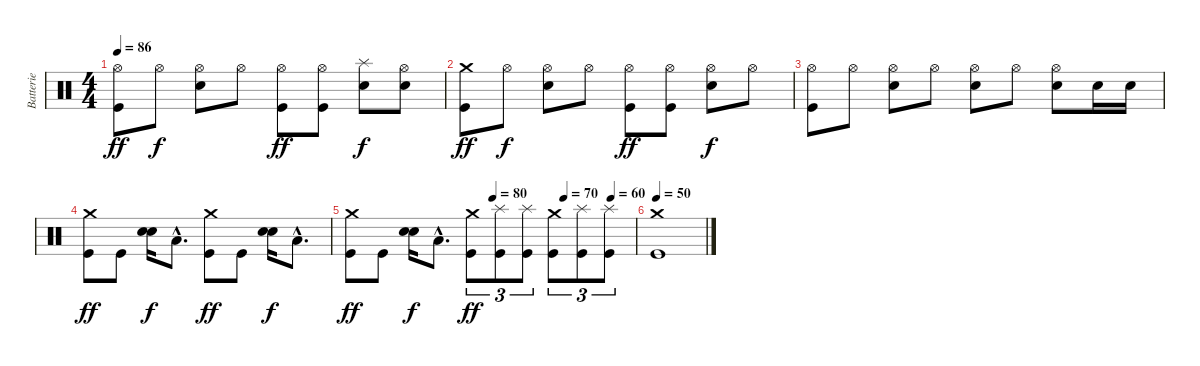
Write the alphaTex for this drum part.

\track ("Batterie" "Batterie") {instrument percussion}
\staff {score}
\articulation defaults
\ts (4 4)
\tempo 86
\clef neutral
\ks c
("Hi-Hat (open)" "Kick (hit)").8{dy ff} "Hi-Hat (open)".8{dy f} ("Hi-Hat (open)" "Electric Snare (hit)").8 "Hi-Hat (open)".8 ("Hi-Hat (open)" "Kick (hit)").8{dy ff} ("Hi-Hat (open)" "Kick (hit)").8 ("Splash (hit)" "Electric Snare (hit)").8{dy f} ("Hi-Hat (open)" "Electric Snare (hit)").8 |
("Crash medium (hit)" "Kick (hit)").8{dy ff} "Hi-Hat (open)".8{dy f} ("Hi-Hat (open)" "Electric Snare (hit)").8 "Hi-Hat (open)".8 ("Hi-Hat (open)" "Kick (hit)").8{dy ff} ("Hi-Hat (open)" "Kick (hit)").8 ("Hi-Hat (open)" "Electric Snare (hit)").8{dy f} "Hi-Hat (open)".8 |
("Hi-Hat (open)" "Kick (hit)").8 "Hi-Hat (open)".8 ("Hi-Hat (open)" "Electric Snare (hit)").8 "Hi-Hat (open)".8 ("Hi-Hat (open)" "Electric Snare (hit)").8 "Hi-Hat (open)".8 ("Hi-Hat (open)" "Electric Snare (hit)").8 "Electric Snare (hit)".16 "Electric Snare (hit)".16 |
("Crash medium (hit)" "Kick (hit)").8{dy ff} "Kick (hit)".8 ("Electric Snare (hit)" "Electric Snare (hit)").16{bu 120 dy f} "Low Tom (hit)"{hac}.8{d} ("Crash medium (hit)" "Kick (hit)").8{dy ff} "Kick (hit)".8 ("Electric Snare (hit)" "Electric Snare (hit)").16{bu 120 dy f} "Low Tom (hit)"{hac}.8{d} |
\tempo (10 0.5)
\tempo (70 0.75)
\tempo (60 0.9166666666666666)
\tempo (80 0.5)
("Crash medium (hit)" "Kick (hit)").8{dy ff} "Kick (hit)".8 ("Electric Snare (hit)" "Electric Snare (hit)").16{bu 120 dy f} "Low Tom (hit)"{hac}.8{d} ("Crash medium (hit)" "Kick (hit)").8{tu (3 2) dy ff} ("Splash (hit)" "Kick (hit)").8{tu (3 2)} ("Splash (hit)" "Kick (hit)").8{tu (3 2)} ("Crash medium (hit)" "Kick (hit)").8{tu (3 2)} ("Splash (hit)" "Kick (hit)").8{tu (3 2)} ("Splash (hit)" "Kick (hit)").8{tu (3 2)} |
\tempo 50
("Crash medium (hit)" "Kick (hit)").1
